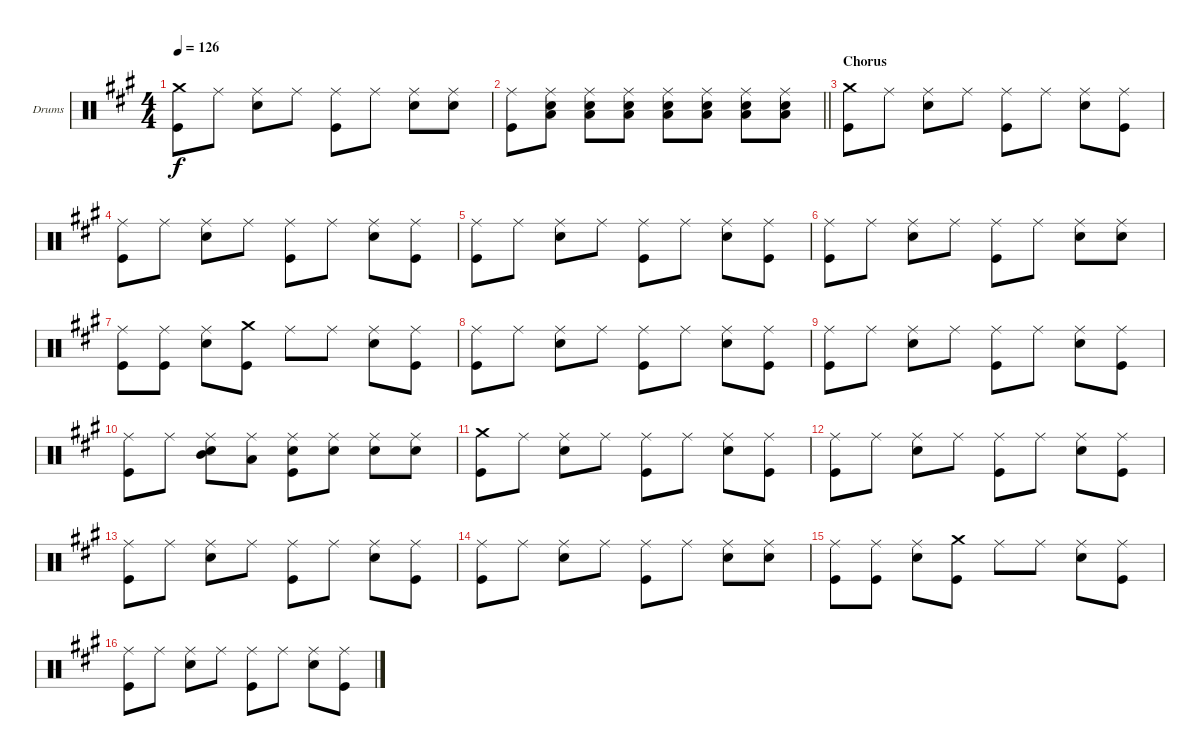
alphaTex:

\bracketExtendMode groupsimilarinstruments
\firstSystemTrackNameOrientation horizontal
\otherSystemsTrackNameOrientation horizontal
\track ("Drumkit" "Drums") {instrument percussion}
\staff {score}
\articulation defaults
\ts (4 4)
\tempo 126
\clef neutral
\ks a
("Crash medium (hit)" "Kick (hit)").8{dy f} "Ride (middle)".8 ("Ride (middle)" "Snare (hit) 2").8 "Ride (middle)".8 ("Ride (middle)" "Kick (hit)").8 "Ride (middle)".8 ("Ride (middle)" "Snare (hit) 2").8 ("Ride (middle)" "Snare (hit) 2").8 |
\barLineRight lightlight
("Ride (middle)" "Kick (hit)").8 ("Ride (middle)" "Low Tom (hit)" "Snare (hit) 2").8 ("Ride (middle)" "Low Tom (hit)" "Snare (hit) 2").8 ("Ride (middle)" "Low Tom (hit)" "Snare (hit) 2").8 ("Ride (middle)" "Low Tom (hit)" "Snare (hit) 2").8 ("Ride (middle)" "Low Tom (hit)" "Snare (hit) 2").8 ("Ride (middle)" "Low Tom (hit)" "Snare (hit) 2").8 ("Ride (middle)" "Low Tom (hit)" "Snare (hit) 2").8 |
\section ("" "Chorus")
("Crash medium (hit)" "Kick (hit)").8 "Ride (middle)".8 ("Ride (middle)" "Snare (hit) 2").8 "Ride (middle)".8 ("Ride (middle)" "Kick (hit)").8 "Ride (middle)".8 ("Ride (middle)" "Snare (hit) 2").8 ("Ride (middle)" "Kick (hit)").8 |
("Ride (middle)" "Kick (hit)").8 "Ride (middle)".8 ("Ride (middle)" "Snare (hit) 2").8 "Ride (middle)".8 ("Ride (middle)" "Kick (hit)").8 "Ride (middle)".8 ("Ride (middle)" "Snare (hit) 2").8 ("Ride (middle)" "Kick (hit)").8 |
("Ride (middle)" "Kick (hit)").8 "Ride (middle)".8 ("Ride (middle)" "Snare (hit) 2").8 "Ride (middle)".8 ("Ride (middle)" "Kick (hit)").8 "Ride (middle)".8 ("Ride (middle)" "Snare (hit) 2").8 ("Ride (middle)" "Kick (hit)").8 |
("Ride (middle)" "Kick (hit)").8 "Ride (middle)".8 ("Ride (middle)" "Snare (hit) 2").8 "Ride (middle)".8 ("Ride (middle)" "Kick (hit)").8 "Ride (middle)".8 ("Ride (middle)" "Snare (hit) 2").8 ("Ride (middle)" "Snare (hit) 2").8 |
("Ride (middle)" "Kick (hit)").8 ("Ride (middle)" "Kick (hit)").8 ("Ride (middle)" "Snare (hit) 2").8 ("Crash medium (hit)" "Kick (hit)").8 "Ride (middle)".8 "Ride (middle)".8 ("Ride (middle)" "Snare (hit) 2").8 ("Ride (middle)" "Kick (hit)").8 |
("Ride (middle)" "Kick (hit)").8 "Ride (middle)".8 ("Ride (middle)" "Snare (hit) 2").8 "Ride (middle)".8 ("Ride (middle)" "Kick (hit)").8 "Ride (middle)".8 ("Ride (middle)" "Snare (hit) 2").8 ("Ride (middle)" "Kick (hit)").8 |
("Ride (middle)" "Kick (hit)").8 "Ride (middle)".8 ("Ride (middle)" "Snare (hit) 2").8 "Ride (middle)".8 ("Ride (middle)" "Kick (hit)").8 "Ride (middle)".8 ("Ride (middle)" "Snare (hit) 2").8 ("Ride (middle)" "Kick (hit)").8 |
("Ride (middle)" "Kick (hit)").8 "Ride (middle)".8 ("Ride (middle)" "Mid Tom (hit)" "Snare (hit) 2").8 ("Ride (middle)" "Low Tom (hit)").8 ("Ride (middle)" "Snare (hit) 2" "Kick (hit)").8 ("Ride (middle)" "Snare (hit) 2").8 ("Ride (middle)" "Snare (hit) 2").8 ("Ride (middle)" "Snare (hit) 2").8 |
("Crash medium (hit)" "Kick (hit)").8 "Ride (middle)".8 ("Ride (middle)" "Snare (hit) 2").8 "Ride (middle)".8 ("Ride (middle)" "Kick (hit)").8 "Ride (middle)".8 ("Ride (middle)" "Snare (hit) 2").8 ("Ride (middle)" "Kick (hit)").8 |
("Ride (middle)" "Kick (hit)").8 "Ride (middle)".8 ("Ride (middle)" "Snare (hit) 2").8 "Ride (middle)".8 ("Ride (middle)" "Kick (hit)").8 "Ride (middle)".8 ("Ride (middle)" "Snare (hit) 2").8 ("Ride (middle)" "Kick (hit)").8 |
("Ride (middle)" "Kick (hit)").8 "Ride (middle)".8 ("Ride (middle)" "Snare (hit) 2").8 "Ride (middle)".8 ("Ride (middle)" "Kick (hit)").8 "Ride (middle)".8 ("Ride (middle)" "Snare (hit) 2").8 ("Ride (middle)" "Kick (hit)").8 |
("Ride (middle)" "Kick (hit)").8 "Ride (middle)".8 ("Ride (middle)" "Snare (hit) 2").8 "Ride (middle)".8 ("Ride (middle)" "Kick (hit)").8 "Ride (middle)".8 ("Ride (middle)" "Snare (hit) 2").8 ("Ride (middle)" "Snare (hit) 2").8 |
("Ride (middle)" "Kick (hit)").8 ("Ride (middle)" "Kick (hit)").8 ("Ride (middle)" "Snare (hit) 2").8 ("Crash medium (hit)" "Kick (hit)").8 "Ride (middle)".8 "Ride (middle)".8 ("Ride (middle)" "Snare (hit) 2").8 ("Ride (middle)" "Kick (hit)").8 |
("Ride (middle)" "Kick (hit)").8 "Ride (middle)".8 ("Ride (middle)" "Snare (hit) 2").8 "Ride (middle)".8 ("Ride (middle)" "Kick (hit)").8 "Ride (middle)".8 ("Ride (middle)" "Snare (hit) 2").8 ("Ride (middle)" "Kick (hit)").8
